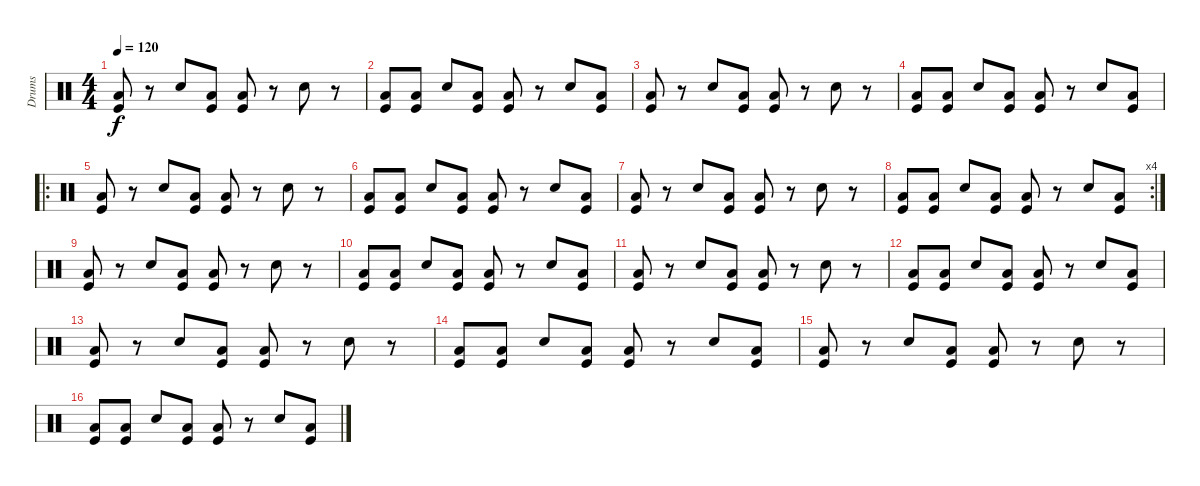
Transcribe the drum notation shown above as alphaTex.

\track ("Drums" "Drums") {instrument percussion}
\staff
\articulation defaults
\ts (4 4)
\tempo 120
\clef neutral
\ks c
("Kick (hit)" "Low Floor Tom (hit)").8{dy f} r.8 "Snare (hit) 2".8 ("Kick (hit)" "Low Floor Tom (hit)").8 ("Kick (hit)" "Low Floor Tom (hit)").8 r.8 "Snare (hit) 2".8 r.8 |
("Kick (hit)" "Low Floor Tom (hit)").8 ("Kick (hit)" "Low Floor Tom (hit)").8 "Snare (hit) 2".8 ("Kick (hit)" "Low Floor Tom (hit)").8 ("Kick (hit)" "Low Floor Tom (hit)").8 r.8 "Snare (hit) 2".8 ("Kick (hit)" "Low Floor Tom (hit)").8 |
("Kick (hit)" "Low Floor Tom (hit)").8 r.8 "Snare (hit) 2".8 ("Kick (hit)" "Low Floor Tom (hit)").8 ("Kick (hit)" "Low Floor Tom (hit)").8 r.8 "Snare (hit) 2".8 r.8 |
("Kick (hit)" "Low Floor Tom (hit)").8 ("Kick (hit)" "Low Floor Tom (hit)").8 "Snare (hit) 2".8 ("Kick (hit)" "Low Floor Tom (hit)").8 ("Kick (hit)" "Low Floor Tom (hit)").8 r.8 "Snare (hit) 2".8 ("Kick (hit)" "Low Floor Tom (hit)").8 |
\ro
("Kick (hit)" "Low Floor Tom (hit)").8 r.8 "Snare (hit) 2".8 ("Kick (hit)" "Low Floor Tom (hit)").8 ("Kick (hit)" "Low Floor Tom (hit)").8 r.8 "Snare (hit) 2".8 r.8 |
("Kick (hit)" "Low Floor Tom (hit)").8 ("Kick (hit)" "Low Floor Tom (hit)").8 "Snare (hit) 2".8 ("Kick (hit)" "Low Floor Tom (hit)").8 ("Kick (hit)" "Low Floor Tom (hit)").8 r.8 "Snare (hit) 2".8 ("Kick (hit)" "Low Floor Tom (hit)").8 |
("Kick (hit)" "Low Floor Tom (hit)").8 r.8 "Snare (hit) 2".8 ("Kick (hit)" "Low Floor Tom (hit)").8 ("Kick (hit)" "Low Floor Tom (hit)").8 r.8 "Snare (hit) 2".8 r.8 |
\rc 4
("Kick (hit)" "Low Floor Tom (hit)").8 ("Kick (hit)" "Low Floor Tom (hit)").8 "Snare (hit) 2".8 ("Kick (hit)" "Low Floor Tom (hit)").8 ("Kick (hit)" "Low Floor Tom (hit)").8 r.8 "Snare (hit) 2".8 ("Kick (hit)" "Low Floor Tom (hit)").8 |
("Kick (hit)" "Low Floor Tom (hit)").8 r.8 "Snare (hit) 2".8 ("Kick (hit)" "Low Floor Tom (hit)").8 ("Kick (hit)" "Low Floor Tom (hit)").8 r.8 "Snare (hit) 2".8 r.8 |
("Kick (hit)" "Low Floor Tom (hit)").8 ("Kick (hit)" "Low Floor Tom (hit)").8 "Snare (hit) 2".8 ("Kick (hit)" "Low Floor Tom (hit)").8 ("Kick (hit)" "Low Floor Tom (hit)").8 r.8 "Snare (hit) 2".8 ("Kick (hit)" "Low Floor Tom (hit)").8 |
("Kick (hit)" "Low Floor Tom (hit)").8 r.8 "Snare (hit) 2".8 ("Kick (hit)" "Low Floor Tom (hit)").8 ("Kick (hit)" "Low Floor Tom (hit)").8 r.8 "Snare (hit) 2".8 r.8 |
("Kick (hit)" "Low Floor Tom (hit)").8 ("Kick (hit)" "Low Floor Tom (hit)").8 "Snare (hit) 2".8 ("Kick (hit)" "Low Floor Tom (hit)").8 ("Kick (hit)" "Low Floor Tom (hit)").8 r.8 "Snare (hit) 2".8 ("Kick (hit)" "Low Floor Tom (hit)").8 |
("Kick (hit)" "Low Floor Tom (hit)").8 r.8 "Snare (hit) 2".8 ("Kick (hit)" "Low Floor Tom (hit)").8 ("Kick (hit)" "Low Floor Tom (hit)").8 r.8 "Snare (hit) 2".8 r.8 |
("Kick (hit)" "Low Floor Tom (hit)").8 ("Kick (hit)" "Low Floor Tom (hit)").8 "Snare (hit) 2".8 ("Kick (hit)" "Low Floor Tom (hit)").8 ("Kick (hit)" "Low Floor Tom (hit)").8 r.8 "Snare (hit) 2".8 ("Kick (hit)" "Low Floor Tom (hit)").8 |
("Kick (hit)" "Low Floor Tom (hit)").8 r.8 "Snare (hit) 2".8 ("Kick (hit)" "Low Floor Tom (hit)").8 ("Kick (hit)" "Low Floor Tom (hit)").8 r.8 "Snare (hit) 2".8 r.8 |
("Kick (hit)" "Low Floor Tom (hit)").8 ("Kick (hit)" "Low Floor Tom (hit)").8 "Snare (hit) 2".8 ("Kick (hit)" "Low Floor Tom (hit)").8 ("Kick (hit)" "Low Floor Tom (hit)").8 r.8 "Snare (hit) 2".8 ("Kick (hit)" "Low Floor Tom (hit)").8
